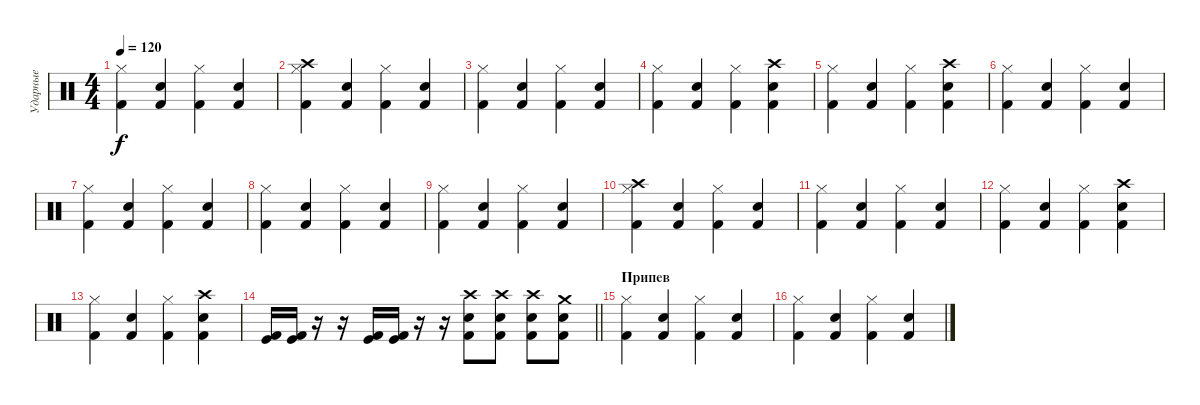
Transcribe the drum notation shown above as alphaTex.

\track ("Ударные" "Ударные") {instrument percussion}
\staff {score}
\articulation defaults
\ts (4 4)
\tempo 120
\clef neutral
\ks c
("Hi-Hat (closed)" "Kick (hit) 2").4{dy f} ("Snare (hit) 2" "Kick (hit) 2").4 ("Hi-Hat (closed)" "Kick (hit) 2").4 ("Snare (hit) 2" "Kick (hit) 2").4 |
("Crash high (hit)" "Hi-Hat (closed)" "Kick (hit) 2").4 ("Snare (hit) 2" "Kick (hit) 2").4 ("Hi-Hat (closed)" "Kick (hit) 2").4 ("Snare (hit) 2" "Kick (hit) 2").4 |
("Hi-Hat (closed)" "Kick (hit) 2").4 ("Snare (hit) 2" "Kick (hit) 2").4 ("Hi-Hat (closed)" "Kick (hit) 2").4 ("Snare (hit) 2" "Kick (hit) 2").4 |
("Hi-Hat (closed)" "Kick (hit) 2").4 ("Snare (hit) 2" "Kick (hit) 2").4 ("Hi-Hat (closed)" "Kick (hit) 2").4 ("Crash high (hit)" "Snare (hit) 2" "Kick (hit) 2").4 |
("Hi-Hat (closed)" "Kick (hit) 2").4 ("Snare (hit) 2" "Kick (hit) 2").4 ("Hi-Hat (closed)" "Kick (hit) 2").4 ("Crash high (hit)" "Snare (hit) 2" "Kick (hit) 2").4 |
("Hi-Hat (closed)" "Kick (hit) 2").4 ("Snare (hit) 2" "Kick (hit) 2").4 ("Hi-Hat (closed)" "Kick (hit) 2").4 ("Snare (hit) 2" "Kick (hit) 2").4 |
("Hi-Hat (closed)" "Kick (hit) 2").4 ("Snare (hit) 2" "Kick (hit) 2").4 ("Hi-Hat (closed)" "Kick (hit) 2").4 ("Snare (hit) 2" "Kick (hit) 2").4 |
("Hi-Hat (closed)" "Kick (hit) 2").4 ("Snare (hit) 2" "Kick (hit) 2").4 ("Hi-Hat (closed)" "Kick (hit) 2").4 ("Snare (hit) 2" "Kick (hit) 2").4 |
("Hi-Hat (closed)" "Kick (hit) 2").4 ("Snare (hit) 2" "Kick (hit) 2").4 ("Hi-Hat (closed)" "Kick (hit) 2").4 ("Snare (hit) 2" "Kick (hit) 2").4 |
("Crash high (hit)" "Hi-Hat (closed)" "Kick (hit) 2").4 ("Snare (hit) 2" "Kick (hit) 2").4 ("Hi-Hat (closed)" "Kick (hit) 2").4 ("Snare (hit) 2" "Kick (hit) 2").4 |
("Hi-Hat (closed)" "Kick (hit) 2").4 ("Snare (hit) 2" "Kick (hit) 2").4 ("Hi-Hat (closed)" "Kick (hit) 2").4 ("Snare (hit) 2" "Kick (hit) 2").4 |
("Hi-Hat (closed)" "Kick (hit) 2").4 ("Snare (hit) 2" "Kick (hit) 2").4 ("Hi-Hat (closed)" "Kick (hit) 2").4 ("Crash high (hit)" "Snare (hit) 2" "Kick (hit) 2").4 |
("Hi-Hat (closed)" "Kick (hit) 2").4 ("Snare (hit) 2" "Kick (hit) 2").4 ("Hi-Hat (closed)" "Kick (hit) 2").4 ("Crash high (hit)" "Snare (hit) 2" "Kick (hit) 2").4 |
\barLineRight lightlight
("Kick (hit)" "Kick (hit) 2").16 ("Kick (hit)" "Kick (hit) 2").16 r.16 r.16 ("Kick (hit)" "Kick (hit) 2").16 ("Kick (hit)" "Kick (hit) 2").16 r.16 r.16 ("Crash high (hit)" "Snare (hit) 2" "Kick (hit) 2").8 ("Crash high (hit)" "Snare (hit) 2" "Kick (hit) 2").8 ("Crash high (hit)" "Snare (hit) 2" "Kick (hit) 2").8 ("Crash medium (hit)" "Snare (hit) 2" "Kick (hit) 2").8 |
\section ("" "Припев")
("Hi-Hat (closed)" "Kick (hit) 2").4 ("Snare (hit) 2" "Kick (hit) 2").4 ("Hi-Hat (closed)" "Kick (hit) 2").4 ("Snare (hit) 2" "Kick (hit) 2").4 |
("Hi-Hat (closed)" "Kick (hit) 2").4 ("Snare (hit) 2" "Kick (hit) 2").4 ("Hi-Hat (closed)" "Kick (hit) 2").4 ("Snare (hit) 2" "Kick (hit) 2").4
